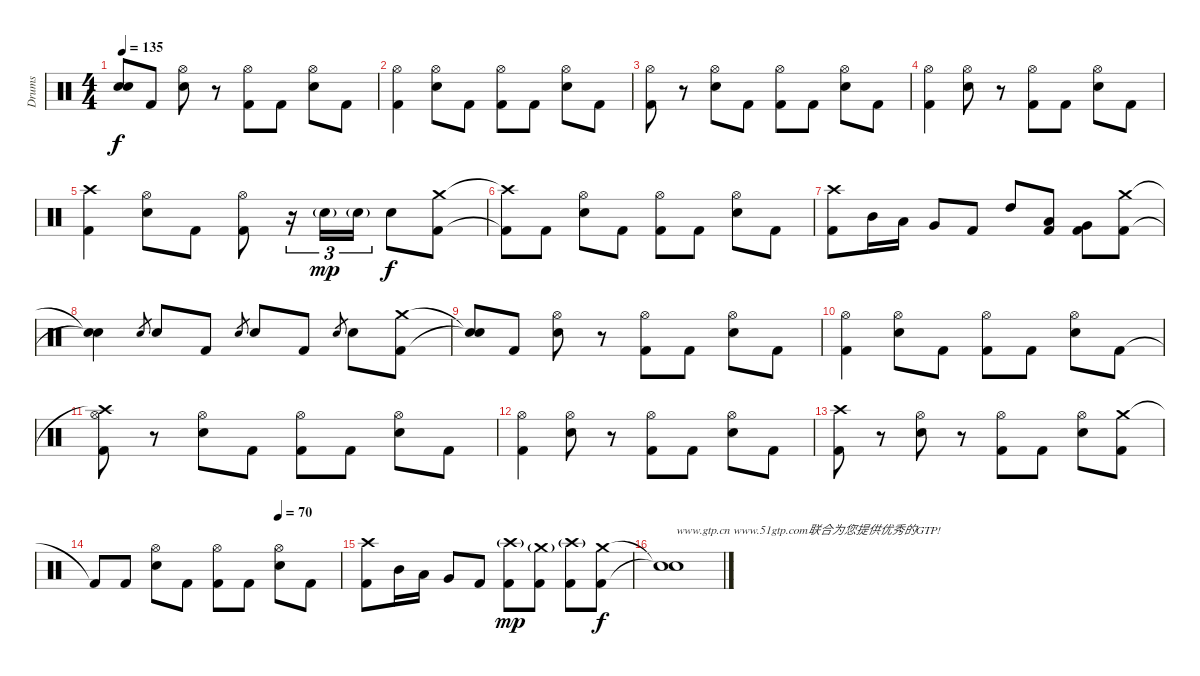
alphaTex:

\track ("Drums" "Drums") {instrument percussion}
\staff {score}
\articulation defaults
\ts (4 4)
\tempo 135
\clef neutral
\ks c
("Snare (hit)"{t} "Snare (hit)"{t}).8{dy f} "Kick (hit) 2".8 ("Hi-Hat (open)" "Electric Snare (hit)").8 r.8 ("Hi-Hat (open)" "Kick (hit) 2").8 "Kick (hit) 2".8 ("Hi-Hat (open)" "Electric Snare (hit)").8 "Kick (hit) 2".8 |
("Hi-Hat (open)" "Kick (hit) 2").4 ("Hi-Hat (open)" "Electric Snare (hit)").8 "Kick (hit) 2".8 ("Hi-Hat (open)" "Kick (hit) 2").8 "Kick (hit) 2".8 ("Hi-Hat (open)" "Electric Snare (hit)").8 "Kick (hit) 2".8 |
("Hi-Hat (open)" "Kick (hit) 2").8 r.8 ("Hi-Hat (open)" "Electric Snare (hit)").8 "Kick (hit) 2".8 ("Hi-Hat (open)" "Kick (hit) 2").8 "Kick (hit) 2".8 ("Hi-Hat (open)" "Electric Snare (hit)").8 "Kick (hit) 2".8 |
("Hi-Hat (open)" "Kick (hit) 2").4 ("Hi-Hat (open)" "Electric Snare (hit)").8 r.8 ("Hi-Hat (open)" "Kick (hit) 2").8 "Kick (hit) 2".8 ("Hi-Hat (open)" "Electric Snare (hit)").8 "Kick (hit) 2".8 |
("Crash high (hit)" "Kick (hit) 2").4 ("Hi-Hat (open)" "Electric Snare (hit)").8 "Kick (hit) 2".8 ("Hi-Hat (open)" "Kick (hit) 2").8 r.16{tu (3 2)} "Electric Snare (hit)"{g}.16{tu (3 2) dy mp} "Electric Snare (hit)"{g}.16{tu (3 2)} "Electric Snare (hit)".8{dy f} ("Crash medium (hit)" "Kick (hit) 2").8 |
("Crash high (hit)"{t} "Kick (hit) 2"{t}).8 "Kick (hit) 2".8 ("Hi-Hat (open)" "Electric Snare (hit)").8 "Kick (hit) 2".8 ("Hi-Hat (open)" "Kick (hit) 2").8 "Kick (hit) 2".8 ("Hi-Hat (open)" "Electric Snare (hit)").8 "Kick (hit) 2".8 |
("Crash high (hit)" "Kick (hit) 2").8 "Mid Tom (hit)".16 "Low Tom (hit)".16 "Very Low Tom (hit)".8 "Kick (hit) 2".8 "High Tom (hit)".8 ("Low Tom (hit)" "Kick (hit) 2").8 ("Very Low Tom (hit)" "Kick (hit) 2").8 ("Crash medium (hit)" "Kick (hit) 2").8 |
("Snare (hit)"{t} "Snare (hit)"{t}).4 "Electric Snare (hit)".8{gr} "Electric Snare (hit)".8 "Kick (hit) 2".8 "Electric Snare (hit)".8{gr} "Electric Snare (hit)".8 "Kick (hit) 2".8 "Electric Snare (hit)".8{gr} "Electric Snare (hit)".8 ("Crash medium (hit)" "Kick (hit) 2").8 |
("Snare (hit)"{t} "Snare (hit)"{t}).8 "Kick (hit) 2".8 ("Hi-Hat (open)" "Electric Snare (hit)").8 r.8 ("Hi-Hat (open)" "Kick (hit) 2").8 "Kick (hit) 2".8 ("Hi-Hat (open)" "Electric Snare (hit)").8 "Kick (hit) 2".8 |
("Hi-Hat (open)" "Kick (hit) 2").4 ("Hi-Hat (open)" "Electric Snare (hit)").8 "Kick (hit) 2".8 ("Hi-Hat (open)" "Kick (hit) 2").8 "Kick (hit) 2".8 ("Hi-Hat (open)" "Electric Snare (hit)").8 "Kick (hit) 2".8 |
("Crash high (hit)"{t} "Hi-Hat (open)" "Kick (hit) 2").8 r.8 ("Hi-Hat (open)" "Electric Snare (hit)").8 "Kick (hit) 2".8 ("Hi-Hat (open)" "Kick (hit) 2").8 "Kick (hit) 2".8 ("Hi-Hat (open)" "Electric Snare (hit)").8 "Kick (hit) 2".8 |
("Hi-Hat (open)" "Kick (hit) 2").4 ("Hi-Hat (open)" "Electric Snare (hit)").8 r.8 ("Hi-Hat (open)" "Kick (hit) 2").8 "Kick (hit) 2".8 ("Hi-Hat (open)" "Electric Snare (hit)").8 "Kick (hit) 2".8 |
("Crash high (hit)" "Kick (hit) 2").8 r.8 ("Hi-Hat (open)" "Electric Snare (hit)").8 r.8 ("Hi-Hat (open)" "Kick (hit) 2").8 "Kick (hit) 2".8 ("Hi-Hat (open)" "Electric Snare (hit)").8 ("Crash medium (hit)" "Kick (hit) 2").8 |
\tempo (70 0.75)
"Kick (hit) 2"{t}.8 "Kick (hit) 2".8 ("Hi-Hat (open)" "Electric Snare (hit)").8 "Kick (hit) 2".8 ("Hi-Hat (open)" "Kick (hit) 2").8 "Kick (hit) 2".8 ("Hi-Hat (open)" "Electric Snare (hit)").8 "Kick (hit) 2".8 |
("Crash high (hit)" "Kick (hit) 2").8 "Mid Tom (hit)".16 "Low Tom (hit)".16 "Very Low Tom (hit)".8 "Kick (hit) 2".8 ("Crash high (hit)"{g} "Kick (hit) 2").8{dy mp} ("Crash medium (hit)"{g} "Kick (hit) 2").8 ("Crash high (hit)"{g} "Kick (hit) 2").8 ("Crash medium (hit)" "Kick (hit) 2").8{dy f} |
("Snare (hit)"{t} "Snare (hit)"{t}).1{txt "www.gtp.cn www.51gtp.com联合为您提供优秀的GTP!"}
